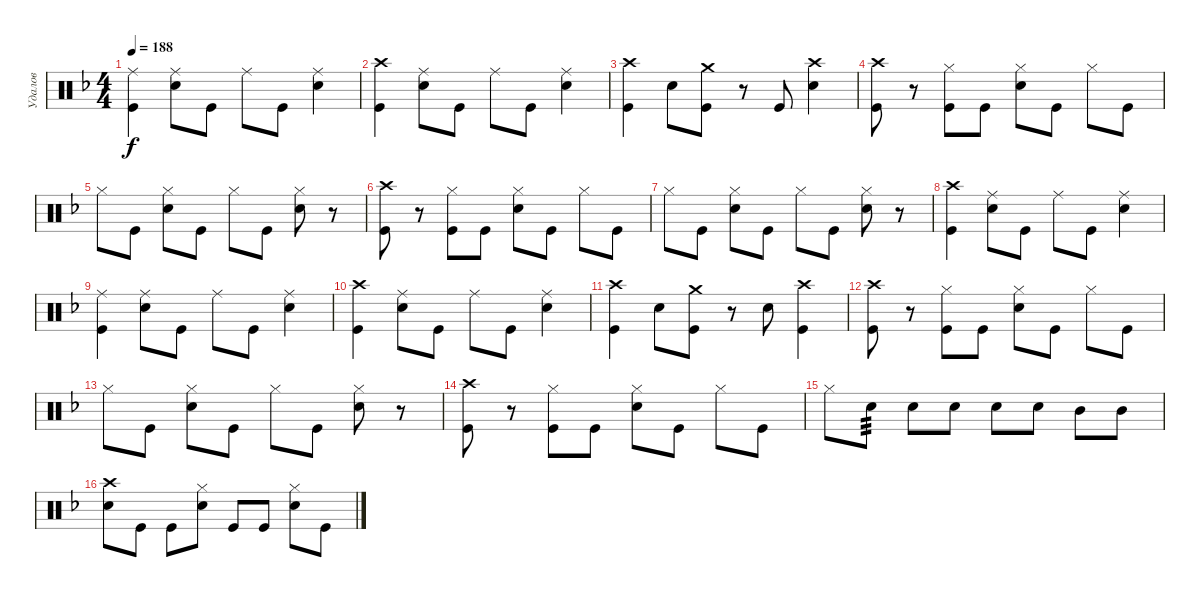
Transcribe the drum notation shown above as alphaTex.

\track ("Удалов" "Удалов") {instrument percussion}
\staff {score}
\articulation defaults
\ts (4 4)
\tempo 188
\clef neutral
\ks f
("Ride (middle)" "Kick (hit)").4{dy f} ("Ride (middle)" "Electric Snare (hit)").8 "Kick (hit)".8 "Ride (middle)".8 "Kick (hit)".8 ("Ride (middle)" "Electric Snare (hit)").4 |
("Crash high (hit)" "Kick (hit)").4 ("Ride (middle)" "Electric Snare (hit)").8 "Kick (hit)".8 "Ride (middle)".8 "Kick (hit)".8 ("Ride (middle)" "Electric Snare (hit)").4 |
("Crash high (hit)" "Kick (hit)").4 "Electric Snare (hit)".8 ("Crash medium (hit)" "Kick (hit)").8 r.8 "Kick (hit)".8 ("Crash high (hit)" "Electric Snare (hit)").4 |
("Crash high (hit)" "Kick (hit)").8 r.8 ("Hi-Hat (closed)" "Kick (hit)").8 "Kick (hit)".8 ("Hi-Hat (closed)" "Electric Snare (hit)").8 "Kick (hit)".8 "Hi-Hat (closed)".8 "Kick (hit)".8 |
"Hi-Hat (closed)".8 "Kick (hit)".8 ("Hi-Hat (closed)" "Electric Snare (hit)").8 "Kick (hit)".8 "Hi-Hat (closed)".8 "Kick (hit)".8 ("Hi-Hat (closed)" "Electric Snare (hit)").8 r.8 |
("Crash high (hit)" "Kick (hit)").8 r.8 ("Hi-Hat (closed)" "Kick (hit)").8 "Kick (hit)".8 ("Hi-Hat (closed)" "Electric Snare (hit)").8 "Kick (hit)".8 "Hi-Hat (closed)".8 "Kick (hit)".8 |
"Hi-Hat (closed)".8 "Kick (hit)".8 ("Hi-Hat (closed)" "Electric Snare (hit)").8 "Kick (hit)".8 "Hi-Hat (closed)".8 "Kick (hit)".8 ("Hi-Hat (closed)" "Electric Snare (hit)").8 r.8 |
("Crash high (hit)" "Kick (hit)").4 ("Ride (middle)" "Electric Snare (hit)").8 "Kick (hit)".8 "Ride (middle)".8 "Kick (hit)".8 ("Ride (middle)" "Electric Snare (hit)").4 |
("Ride (middle)" "Kick (hit)").4 ("Ride (middle)" "Electric Snare (hit)").8 "Kick (hit)".8 "Ride (middle)".8 "Kick (hit)".8 ("Ride (middle)" "Electric Snare (hit)").4 |
("Crash high (hit)" "Kick (hit)").4 ("Ride (middle)" "Electric Snare (hit)").8 "Kick (hit)".8 "Ride (middle)".8 "Kick (hit)".8 ("Ride (middle)" "Electric Snare (hit)").4 |
("Crash high (hit)" "Kick (hit)").4 "Electric Snare (hit)".8 ("Crash medium (hit)" "Kick (hit)").8 r.8 "Electric Snare (hit)".8 ("Crash high (hit)" "Kick (hit)").4 |
("Crash high (hit)" "Kick (hit)").8 r.8 ("Hi-Hat (closed)" "Kick (hit)").8 "Kick (hit)".8 ("Hi-Hat (closed)" "Electric Snare (hit)").8 "Kick (hit)".8 "Hi-Hat (closed)".8 "Kick (hit)".8 |
"Hi-Hat (closed)".8 "Kick (hit)".8 ("Hi-Hat (closed)" "Electric Snare (hit)").8 "Kick (hit)".8 "Hi-Hat (closed)".8 "Kick (hit)".8 ("Hi-Hat (closed)" "Electric Snare (hit)").8 r.8 |
("Crash high (hit)" "Kick (hit)").8 r.8 ("Hi-Hat (closed)" "Kick (hit)").8 "Kick (hit)".8 ("Hi-Hat (closed)" "Electric Snare (hit)").8 "Kick (hit)".8 "Hi-Hat (closed)".8 "Kick (hit)".8 |
"Hi-Hat (closed)".8 "Electric Snare (hit)".8{tp 3} "Electric Snare (hit)".8 "Electric Snare (hit)".8 "Electric Snare (hit)".8 "Electric Snare (hit)".8 "Mid Tom (hit)".8 "Mid Tom (hit)".8 |
("Crash high (hit)" "Electric Snare (hit)").8 "Kick (hit)".8 "Kick (hit)".8 ("Hi-Hat (closed)" "Electric Snare (hit)").8 "Kick (hit)".8 "Kick (hit)".8 ("Hi-Hat (closed)" "Electric Snare (hit)").8 "Kick (hit)".8
